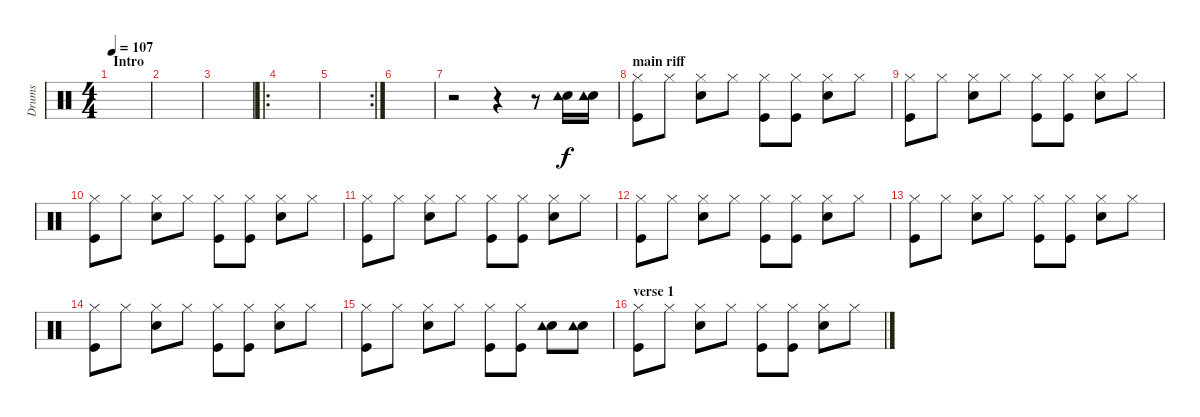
\track ("Drums" "Drums") {instrument percussion}
\staff {score}
\articulation defaults
\ts (4 4)
\section ("" "Intro")
\tempo 107
\clef neutral
\ks c
|
|
|
\ro
|
\rc 2
|
|
r.2 r.4 r.8 ("Electric Snare (hit)" "Tambourine (hit)").16 ("Electric Snare (hit)" "Tambourine (hit)").16 |
\section ("" "main riff ")
("Kick (hit)" "Hi-Hat (closed)").8 "Hi-Hat (closed)".8 ("Electric Snare (hit)" "Hi-Hat (closed)").8 "Hi-Hat (closed)".8 ("Kick (hit)" "Hi-Hat (closed)").8 ("Kick (hit)" "Hi-Hat (closed)").8 ("Electric Snare (hit)" "Hi-Hat (closed)").8 "Hi-Hat (closed)".8 |
("Kick (hit)" "Hi-Hat (closed)").8 "Hi-Hat (closed)".8 ("Electric Snare (hit)" "Hi-Hat (closed)").8 "Hi-Hat (closed)".8 ("Kick (hit)" "Hi-Hat (closed)").8 ("Kick (hit)" "Hi-Hat (closed)").8 ("Electric Snare (hit)" "Hi-Hat (closed)").8 "Hi-Hat (closed)".8 |
("Kick (hit)" "Hi-Hat (closed)").8 "Hi-Hat (closed)".8 ("Electric Snare (hit)" "Hi-Hat (closed)").8 "Hi-Hat (closed)".8 ("Kick (hit)" "Hi-Hat (closed)").8 ("Kick (hit)" "Hi-Hat (closed)").8 ("Electric Snare (hit)" "Hi-Hat (closed)").8 "Hi-Hat (closed)".8 |
("Kick (hit)" "Hi-Hat (closed)").8 "Hi-Hat (closed)".8 ("Electric Snare (hit)" "Hi-Hat (closed)").8 "Hi-Hat (closed)".8 ("Kick (hit)" "Hi-Hat (closed)").8 ("Kick (hit)" "Hi-Hat (closed)").8 ("Electric Snare (hit)" "Hi-Hat (closed)").8 "Hi-Hat (closed)".8 |
("Kick (hit)" "Hi-Hat (closed)").8 "Hi-Hat (closed)".8 ("Electric Snare (hit)" "Hi-Hat (closed)").8 "Hi-Hat (closed)".8 ("Kick (hit)" "Hi-Hat (closed)").8 ("Kick (hit)" "Hi-Hat (closed)").8 ("Electric Snare (hit)" "Hi-Hat (closed)").8 "Hi-Hat (closed)".8 |
("Kick (hit)" "Hi-Hat (closed)").8 "Hi-Hat (closed)".8 ("Electric Snare (hit)" "Hi-Hat (closed)").8 "Hi-Hat (closed)".8 ("Kick (hit)" "Hi-Hat (closed)").8 ("Kick (hit)" "Hi-Hat (closed)").8 ("Electric Snare (hit)" "Hi-Hat (closed)").8 "Hi-Hat (closed)".8 |
("Kick (hit)" "Hi-Hat (closed)").8 "Hi-Hat (closed)".8 ("Electric Snare (hit)" "Hi-Hat (closed)").8 "Hi-Hat (closed)".8 ("Kick (hit)" "Hi-Hat (closed)").8 ("Kick (hit)" "Hi-Hat (closed)").8 ("Electric Snare (hit)" "Hi-Hat (closed)").8 "Hi-Hat (closed)".8 |
("Kick (hit)" "Hi-Hat (closed)").8 "Hi-Hat (closed)".8 ("Electric Snare (hit)" "Hi-Hat (closed)").8 "Hi-Hat (closed)".8 ("Kick (hit)" "Hi-Hat (closed)").8 ("Kick (hit)" "Hi-Hat (closed)").8 ("Electric Snare (hit)" "Tambourine (hit)").8 ("Electric Snare (hit)" "Tambourine (hit)").8 |
\section ("" "verse 1")
("Kick (hit)" "Hi-Hat (closed)").8 "Hi-Hat (closed)".8 ("Electric Snare (hit)" "Hi-Hat (closed)").8 "Hi-Hat (closed)".8 ("Kick (hit)" "Hi-Hat (closed)").8 ("Kick (hit)" "Hi-Hat (closed)").8 ("Electric Snare (hit)" "Hi-Hat (closed)").8 "Hi-Hat (closed)".8
